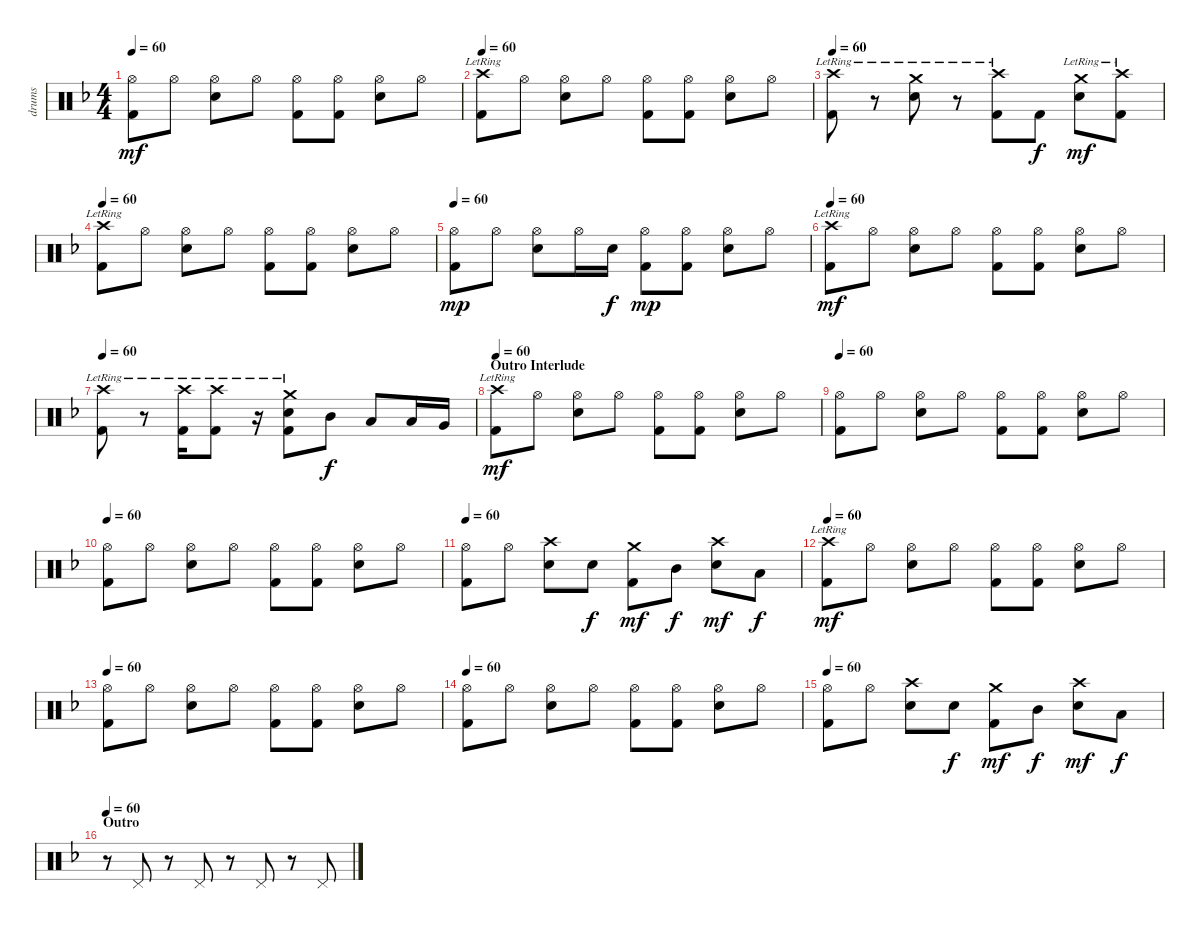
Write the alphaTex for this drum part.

\track ("drums" "drums") {instrument percussion}
\staff {score}
\articulation defaults
\ts (4 4)
\tempo 60
\clef neutral
\ks dminor
("Hi-Hat (open)" "Kick (hit) 2").8{dy mf} "Hi-Hat (open)".8 ("Hi-Hat (open)" "Electric Snare (hit)").8 "Hi-Hat (open)".8 ("Hi-Hat (open)" "Kick (hit) 2").8 ("Hi-Hat (open)" "Kick (hit) 2").8 ("Hi-Hat (open)" "Electric Snare (hit)").8 "Hi-Hat (open)".8 |
\tempo 60
("Crash high (hit)"{lr} "Kick (hit) 2").8 "Hi-Hat (open)".8 ("Hi-Hat (open)" "Electric Snare (hit)").8 "Hi-Hat (open)".8 ("Hi-Hat (open)" "Kick (hit) 2").8 ("Hi-Hat (open)" "Kick (hit) 2").8 ("Hi-Hat (open)" "Electric Snare (hit)").8 "Hi-Hat (open)".8 |
\tempo 60
("Crash high (hit)"{lr} "Kick (hit) 2").8 r.8 ("Crash medium (hit)"{lr} "Electric Snare (hit)").8 r.8 ("Crash high (hit)"{lr} "Kick (hit) 2").8 "Kick (hit) 2".8{dy f} ("Crash medium (hit)"{lr} "Electric Snare (hit)").8{dy mf} ("Crash high (hit)"{lr} "Kick (hit) 2").8 |
\tempo 60
("Crash high (hit)"{lr} "Kick (hit) 2").8 "Hi-Hat (open)".8 ("Hi-Hat (open)" "Electric Snare (hit)").8 "Hi-Hat (open)".8 ("Hi-Hat (open)" "Kick (hit) 2").8 ("Hi-Hat (open)" "Kick (hit) 2").8 ("Hi-Hat (open)" "Electric Snare (hit)").8 "Hi-Hat (open)".8 |
\tempo 60
("Hi-Hat (open)" "Kick (hit) 2").8{dy mp} "Hi-Hat (open)".8 ("Hi-Hat (open)" "Electric Snare (hit)").8 "Hi-Hat (open)".16 "Electric Snare (hit)".16{dy f} ("Hi-Hat (open)" "Kick (hit) 2").8{dy mp} ("Hi-Hat (open)" "Kick (hit) 2").8 ("Hi-Hat (open)" "Electric Snare (hit)").8 "Hi-Hat (open)".8 |
\tempo 60
("Crash high (hit)"{lr} "Kick (hit) 2").8{dy mf} "Hi-Hat (open)".8 ("Hi-Hat (open)" "Electric Snare (hit)").8 "Hi-Hat (open)".8 ("Hi-Hat (open)" "Kick (hit) 2").8 ("Hi-Hat (open)" "Kick (hit) 2").8 ("Hi-Hat (open)" "Electric Snare (hit)").8 "Hi-Hat (open)".8 |
\tempo 60
("Crash high (hit)"{lr} "Kick (hit) 2").8 r.8 ("Crash high (hit)"{lr} "Kick (hit) 2").16 ("Crash high (hit)"{lr} "Kick (hit) 2").8 r.16 ("Crash medium (hit)"{lr} "Electric Snare (hit)" "Kick (hit) 2").8 "Mid Tom (hit)".8{dy f} "Low Tom (hit)".8 "Low Tom (hit)".16 "Very Low Tom (hit)".16 |
\section ("" "Outro Interlude")
\tempo 60
("Crash high (hit)"{lr} "Kick (hit) 2").8{dy mf} "Hi-Hat (open)".8 ("Hi-Hat (open)" "Electric Snare (hit)").8 "Hi-Hat (open)".8 ("Hi-Hat (open)" "Kick (hit) 2").8 ("Hi-Hat (open)" "Kick (hit) 2").8 ("Hi-Hat (open)" "Electric Snare (hit)").8 "Hi-Hat (open)".8 |
\tempo 60
("Hi-Hat (open)" "Kick (hit) 2").8 "Hi-Hat (open)".8 ("Hi-Hat (open)" "Electric Snare (hit)").8 "Hi-Hat (open)".8 ("Hi-Hat (open)" "Kick (hit) 2").8 ("Hi-Hat (open)" "Kick (hit) 2").8 ("Hi-Hat (open)" "Electric Snare (hit)").8 "Hi-Hat (open)".8 |
\tempo 60
("Hi-Hat (open)" "Kick (hit) 2").8 "Hi-Hat (open)".8 ("Hi-Hat (open)" "Electric Snare (hit)").8 "Hi-Hat (open)".8 ("Hi-Hat (open)" "Kick (hit) 2").8 ("Hi-Hat (open)" "Kick (hit) 2").8 ("Hi-Hat (open)" "Electric Snare (hit)").8 "Hi-Hat (open)".8 |
\tempo 60
("Hi-Hat (open)" "Kick (hit) 2").8 "Hi-Hat (open)".8 ("Crash high (hit)" "Electric Snare (hit)").8 "Electric Snare (hit)".8{dy f} ("Crash medium (hit)" "Kick (hit) 2").8{dy mf} "Mid Tom (hit)".8{dy f} ("Crash high (hit)" "Electric Snare (hit)").8{dy mf} "Low Tom (hit)".8{dy f} |
\tempo 60
("Crash high (hit)"{lr} "Kick (hit) 2").8{dy mf} "Hi-Hat (open)".8 ("Hi-Hat (open)" "Electric Snare (hit)").8 "Hi-Hat (open)".8 ("Hi-Hat (open)" "Kick (hit) 2").8 ("Hi-Hat (open)" "Kick (hit) 2").8 ("Hi-Hat (open)" "Electric Snare (hit)").8 "Hi-Hat (open)".8 |
\tempo 60
("Hi-Hat (open)" "Kick (hit) 2").8 "Hi-Hat (open)".8 ("Hi-Hat (open)" "Electric Snare (hit)").8 "Hi-Hat (open)".8 ("Hi-Hat (open)" "Kick (hit) 2").8 ("Hi-Hat (open)" "Kick (hit) 2").8 ("Hi-Hat (open)" "Electric Snare (hit)").8 "Hi-Hat (open)".8 |
\tempo 60
("Hi-Hat (open)" "Kick (hit) 2").8 "Hi-Hat (open)".8 ("Hi-Hat (open)" "Electric Snare (hit)").8 "Hi-Hat (open)".8 ("Hi-Hat (open)" "Kick (hit) 2").8 ("Hi-Hat (open)" "Kick (hit) 2").8 ("Hi-Hat (open)" "Electric Snare (hit)").8 "Hi-Hat (open)".8 |
\tempo 60
("Hi-Hat (open)" "Kick (hit) 2").8 "Hi-Hat (open)".8 ("Crash high (hit)" "Electric Snare (hit)").8 "Electric Snare (hit)".8{dy f} ("Crash medium (hit)" "Kick (hit) 2").8{dy mf} "Mid Tom (hit)".8{dy f} ("Crash high (hit)" "Electric Snare (hit)").8{dy mf} "Low Tom (hit)".8{dy f} |
\section ("" "Outro")
\tempo 60
r.8 "Pedal Hi-Hat (hit)".8 r.8 "Pedal Hi-Hat (hit)".8 r.8 "Pedal Hi-Hat (hit)".8 r.8 "Pedal Hi-Hat (hit)".8
